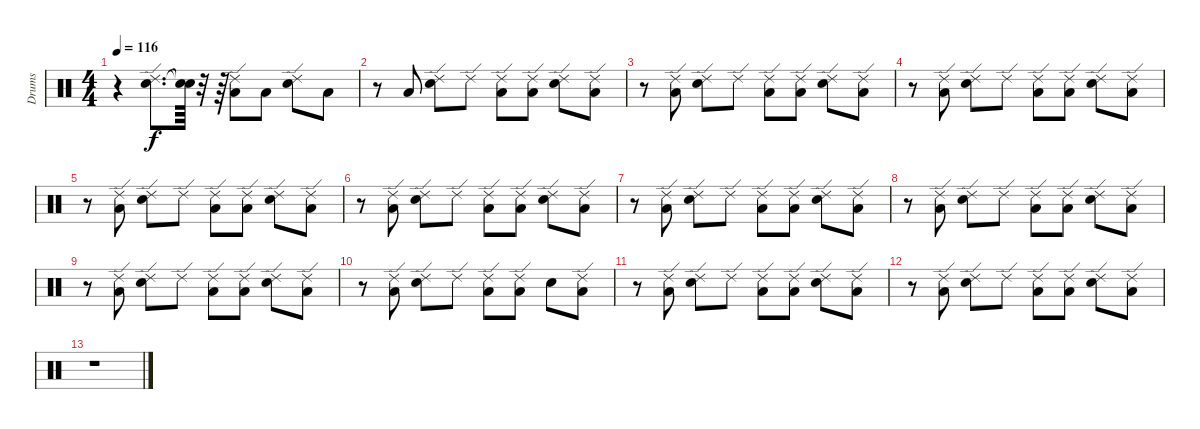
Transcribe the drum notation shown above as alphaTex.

\track ("Drums" "Drums") {instrument percussion}
\staff {score}
\articulation defaults
\ts (4 4)
\tempo 116
\clef neutral
\ks c
r.4{dy f} ("Snare (hit) 2" "Ride (edge) 2").8{d} ("Snare (hit)"{t} "Snare (hit)"{t}).64 r.32 r.64 ("Low Floor Tom (hit)" "Ride (edge) 2").8 "Low Floor Tom (hit)".8 ("Snare (hit) 2" "Ride (edge) 2").8 "Low Floor Tom (hit)".8 |
r.8 "Low Floor Tom (hit)".8 ("Snare (hit) 2" "Ride (edge) 2").8 "Ride (edge) 2".8 ("Low Floor Tom (hit)" "Ride (edge) 2").8 ("Low Floor Tom (hit)" "Ride (edge) 2").8 ("Snare (hit) 2" "Ride (edge) 2").8 ("Low Floor Tom (hit)" "Ride (edge) 2").8 |
r.8 ("Low Floor Tom (hit)" "Ride (edge) 2").8 ("Snare (hit) 2" "Ride (edge) 2").8 "Ride (edge) 2".8 ("Low Floor Tom (hit)" "Ride (edge) 2").8 ("Low Floor Tom (hit)" "Ride (edge) 2").8 ("Snare (hit) 2" "Ride (edge) 2").8 ("Low Floor Tom (hit)" "Ride (edge) 2").8 |
r.8 ("Low Floor Tom (hit)" "Ride (edge) 2").8 ("Snare (hit) 2" "Ride (edge) 2").8 "Ride (edge) 2".8 ("Low Floor Tom (hit)" "Ride (edge) 2").8 ("Low Floor Tom (hit)" "Ride (edge) 2").8 ("Snare (hit) 2" "Ride (edge) 2").8 ("Low Floor Tom (hit)" "Ride (edge) 2").8 |
r.8 ("Low Floor Tom (hit)" "Ride (edge) 2").8 ("Snare (hit) 2" "Ride (edge) 2").8 "Ride (edge) 2".8 ("Low Floor Tom (hit)" "Ride (edge) 2").8 ("Low Floor Tom (hit)" "Ride (edge) 2").8 ("Snare (hit) 2" "Ride (edge) 2").8 ("Low Floor Tom (hit)" "Ride (edge) 2").8 |
r.8 ("Low Floor Tom (hit)" "Ride (edge) 2").8 ("Snare (hit) 2" "Ride (edge) 2").8 "Ride (edge) 2".8 ("Low Floor Tom (hit)" "Ride (edge) 2").8 ("Low Floor Tom (hit)" "Ride (edge) 2").8 ("Snare (hit) 2" "Ride (edge) 2").8 ("Low Floor Tom (hit)" "Ride (edge) 2").8 |
r.8 ("Low Floor Tom (hit)" "Ride (edge) 2").8 ("Snare (hit) 2" "Ride (edge) 2").8 "Ride (edge) 2".8 ("Low Floor Tom (hit)" "Ride (edge) 2").8 ("Low Floor Tom (hit)" "Ride (edge) 2").8 ("Snare (hit) 2" "Ride (edge) 2").8 ("Low Floor Tom (hit)" "Ride (edge) 2").8 |
r.8 ("Low Floor Tom (hit)" "Ride (edge) 2").8 ("Snare (hit) 2" "Ride (edge) 2").8 "Ride (edge) 2".8 ("Low Floor Tom (hit)" "Ride (edge) 2").8 ("Low Floor Tom (hit)" "Ride (edge) 2").8 ("Snare (hit) 2" "Ride (edge) 2").8 ("Low Floor Tom (hit)" "Ride (edge) 2").8 |
r.8 ("Low Floor Tom (hit)" "Ride (edge) 2").8 ("Snare (hit) 2" "Ride (edge) 2").8 "Ride (edge) 2".8 ("Low Floor Tom (hit)" "Ride (edge) 2").8 ("Low Floor Tom (hit)" "Ride (edge) 2").8 ("Snare (hit) 2" "Ride (edge) 2").8 ("Low Floor Tom (hit)" "Ride (edge) 2").8 |
r.8 ("Low Floor Tom (hit)" "Ride (edge) 2").8 ("Snare (hit) 2" "Ride (edge) 2").8 "Ride (edge) 2".8 ("Low Floor Tom (hit)" "Ride (edge) 2").8 ("Low Floor Tom (hit)" "Ride (edge) 2").8 "Snare (hit) 2".8 ("Low Floor Tom (hit)" "Ride (edge) 2").8 |
r.8 ("Low Floor Tom (hit)" "Ride (edge) 2").8 ("Snare (hit) 2" "Ride (edge) 2").8 "Ride (edge) 2".8 ("Low Floor Tom (hit)" "Ride (edge) 2").8 ("Low Floor Tom (hit)" "Ride (edge) 2").8 ("Snare (hit) 2" "Ride (edge) 2").8 ("Low Floor Tom (hit)" "Ride (edge) 2").8 |
r.8 ("Low Floor Tom (hit)" "Ride (edge) 2").8 ("Snare (hit) 2" "Ride (edge) 2").8 "Ride (edge) 2".8 ("Low Floor Tom (hit)" "Ride (edge) 2").8 ("Low Floor Tom (hit)" "Ride (edge) 2").8 ("Snare (hit) 2" "Ride (edge) 2").8 ("Low Floor Tom (hit)" "Ride (edge) 2").8 |
r.1
